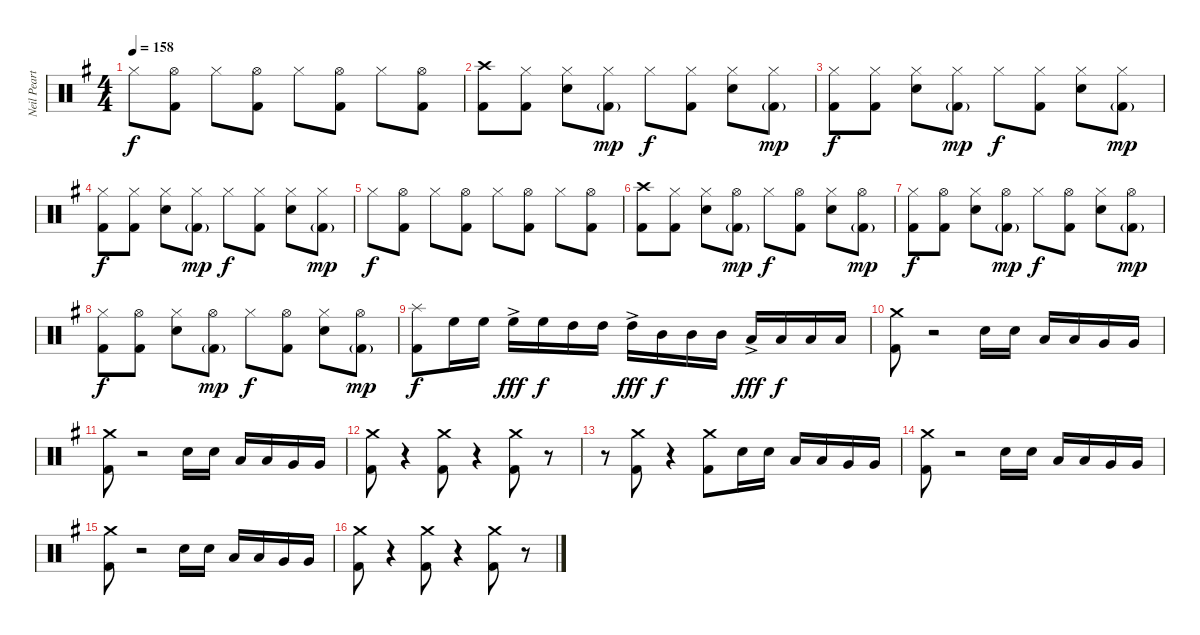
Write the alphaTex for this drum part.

\track ("Neil Peart (drums)" "Neil Peart") {instrument percussion}
\staff {score}
\articulation defaults
\ts (4 4)
\tempo 158
\clef neutral
\ks eminor "Hi-Hat (closed)".8{dy f}
("Hi-Hat (open)" "Kick (hit) 2").8 "Hi-Hat (closed)".8 ("Hi-Hat (open)" "Kick (hit) 2").8 "Hi-Hat (closed)".8 ("Hi-Hat (open)" "Kick (hit) 2").8 "Hi-Hat (closed)".8 ("Hi-Hat (open)" "Kick (hit) 2").8 |
("Crash high (hit)" "Kick (hit) 2").8 ("Hi-Hat (closed)" "Kick (hit) 2").8 ("Hi-Hat (closed)" "Electric Snare (hit)").8 ("Hi-Hat (closed)" "Kick (hit) 2"{g}).8{dy mp} "Hi-Hat (closed)".8{dy f} ("Hi-Hat (closed)" "Kick (hit) 2").8 ("Hi-Hat (closed)" "Electric Snare (hit)").8 ("Hi-Hat (closed)" "Kick (hit) 2"{g}).8{dy mp} |
("Hi-Hat (closed)" "Kick (hit) 2").8{dy f} ("Hi-Hat (closed)" "Kick (hit) 2").8 ("Hi-Hat (closed)" "Electric Snare (hit)").8 ("Hi-Hat (closed)" "Kick (hit) 2"{g}).8{dy mp} "Hi-Hat (closed)".8{dy f} ("Hi-Hat (closed)" "Kick (hit) 2").8 ("Hi-Hat (closed)" "Electric Snare (hit)").8 ("Hi-Hat (closed)" "Kick (hit) 2"{g}).8{dy mp} |
("Hi-Hat (closed)" "Kick (hit) 2").8{dy f} ("Hi-Hat (closed)" "Kick (hit) 2").8 ("Hi-Hat (closed)" "Electric Snare (hit)").8 ("Hi-Hat (closed)" "Kick (hit) 2"{g}).8{dy mp} "Hi-Hat (closed)".8{dy f} ("Hi-Hat (closed)" "Kick (hit) 2").8 ("Hi-Hat (closed)" "Electric Snare (hit)").8 ("Hi-Hat (closed)" "Kick (hit) 2"{g}).8{dy mp} |
"Hi-Hat (closed)".8{dy f} ("Hi-Hat (open)" "Kick (hit) 2").8 "Hi-Hat (closed)".8 ("Hi-Hat (open)" "Kick (hit) 2").8 "Hi-Hat (closed)".8 ("Hi-Hat (open)" "Kick (hit) 2").8 "Hi-Hat (closed)".8 ("Hi-Hat (open)" "Kick (hit) 2").8 |
("Crash high (hit)" "Kick (hit) 2").8 ("Hi-Hat (closed)" "Kick (hit) 2").8 ("Hi-Hat (closed)" "Electric Snare (hit)").8 ("Hi-Hat (open)" "Kick (hit) 2"{g}).8{dy mp} "Hi-Hat (closed)".8{dy f} ("Hi-Hat (open)" "Kick (hit) 2").8 ("Hi-Hat (closed)" "Electric Snare (hit)").8 ("Hi-Hat (open)" "Kick (hit) 2"{g}).8{dy mp} |
("Hi-Hat (closed)" "Kick (hit) 2").8{dy f} ("Hi-Hat (open)" "Kick (hit) 2").8 ("Hi-Hat (closed)" "Electric Snare (hit)").8 ("Hi-Hat (open)" "Kick (hit) 2"{g}).8{dy mp} "Hi-Hat (closed)".8{dy f} ("Hi-Hat (open)" "Kick (hit) 2").8 ("Hi-Hat (closed)" "Electric Snare (hit)").8 ("Hi-Hat (open)" "Kick (hit) 2"{g}).8{dy mp} |
("Hi-Hat (closed)" "Kick (hit) 2").8{dy f} ("Hi-Hat (open)" "Kick (hit) 2").8 ("Hi-Hat (closed)" "Electric Snare (hit)").8 ("Hi-Hat (open)" "Kick (hit) 2"{g}).8{dy mp} "Hi-Hat (closed)".8{dy f} ("Hi-Hat (open)" "Kick (hit) 2").8 ("Hi-Hat (closed)" "Electric Snare (hit)").8 ("Hi-Hat (open)" "Kick (hit) 2"{g}).8{dy mp} |
("Splash (hit)" "Kick (hit) 2").8{dy f} "High Floor Tom (hit)".16 "High Floor Tom (hit)".16 "High Floor Tom (hit)"{ac}.16{dy fff} "High Floor Tom (hit)".16{dy f} "High Tom (hit)".16 "High Tom (hit)".16 "High Tom (hit)"{ac}.16{dy fff} "Mid Tom (hit)".16{dy f} "Mid Tom (hit)".16 "Mid Tom (hit)".16 "Low Tom (hit)"{ac}.16{dy fff} "Low Tom (hit)".16{dy f} "Low Tom (hit)".16 "Low Tom (hit)".16 |
("Crash medium (hit)" "Kick (hit) 2").8 r.2{volume 0} "Electric Snare (hit)".16{volume 13} "Electric Snare (hit)".16 "Low Tom (hit)".16 "Low Tom (hit)".16 "Very Low Tom (hit)".16 "Very Low Tom (hit)".16 |
("Crash medium (hit)" "Kick (hit) 2").8 r.2{volume 0} "Electric Snare (hit)".16{volume 13} "Electric Snare (hit)".16 "Low Tom (hit)".16 "Low Tom (hit)".16 "Very Low Tom (hit)".16 "Very Low Tom (hit)".16 |
("Crash medium (hit)" "Kick (hit) 2").8 r.4{volume 0} ("Crash medium (hit)" "Kick (hit) 2").8{volume 13} r.4{volume 0} ("Crash medium (hit)" "Kick (hit) 2").8{volume 13} r.8{volume 0} |
r.8 ("Crash medium (hit)" "Kick (hit) 2").8{volume 13} r.4{volume 0} ("Crash medium (hit)" "Kick (hit) 2").8{volume 13} "Electric Snare (hit)".16 "Electric Snare (hit)".16 "Low Tom (hit)".16 "Low Tom (hit)".16 "Very Low Tom (hit)".16 "Very Low Tom (hit)".16 |
("Crash medium (hit)" "Kick (hit) 2").8 r.2{volume 0} "Electric Snare (hit)".16{volume 13} "Electric Snare (hit)".16 "Low Tom (hit)".16 "Low Tom (hit)".16 "Very Low Tom (hit)".16 "Very Low Tom (hit)".16 |
("Crash medium (hit)" "Kick (hit) 2").8{volume 13} r.2{volume 0} "Electric Snare (hit)".16{volume 13} "Electric Snare (hit)".16 "Low Tom (hit)".16 "Low Tom (hit)".16 "Very Low Tom (hit)".16 "Very Low Tom (hit)".16 |
("Crash medium (hit)" "Kick (hit) 2").8 r.4{volume 0} ("Crash medium (hit)" "Kick (hit) 2").8{volume 13} r.4{volume 0} ("Crash medium (hit)" "Kick (hit) 2").8{volume 13} r.8{volume 0}
